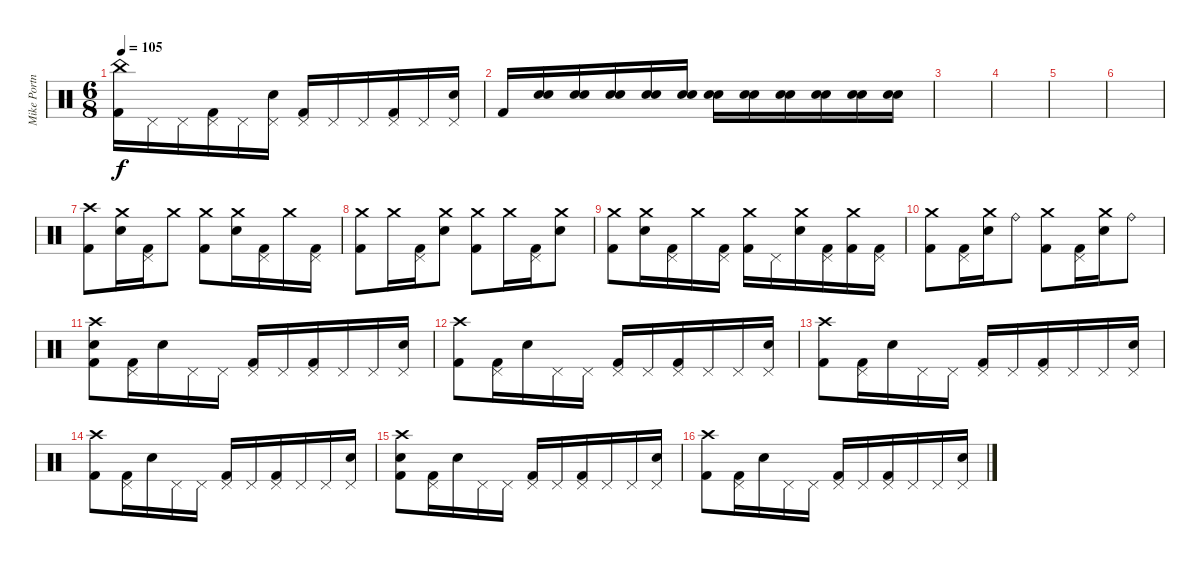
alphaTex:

\track ("Mike Portnoy" "Mike Portn") {instrument percussion}
\staff {score}
\articulation defaults
\ts (6 8)
\tempo 105
\clef neutral
\ks c
("China (hit)" "Kick (hit) 2").16{dy f} "Pedal Hi-Hat (hit)".16 "Pedal Hi-Hat (hit)".16 ("Pedal Hi-Hat (hit)" "Kick (hit) 2").16 "Pedal Hi-Hat (hit)".16 ("Pedal Hi-Hat (hit)" "Electric Snare (hit)").16 ("Pedal Hi-Hat (hit)" "Kick (hit) 2").16 "Pedal Hi-Hat (hit)".16 "Pedal Hi-Hat (hit)".16 ("Pedal Hi-Hat (hit)" "Kick (hit) 2").16 "Pedal Hi-Hat (hit)".16 ("Pedal Hi-Hat (hit)" "Electric Snare (hit)").16 |
"Kick (hit) 2".16 ("Electric Snare (hit)" "Electric Snare (hit)").16 ("Electric Snare (hit)" "Electric Snare (hit)").16 ("Electric Snare (hit)" "Electric Snare (hit)").16 ("Electric Snare (hit)" "Electric Snare (hit)").16 ("Electric Snare (hit)" "Electric Snare (hit)").16 ("Electric Snare (hit)" "Electric Snare (hit)").16 ("Electric Snare (hit)" "Electric Snare (hit)").16 ("Electric Snare (hit)" "Electric Snare (hit)").16 ("Electric Snare (hit)" "Electric Snare (hit)").16 ("Electric Snare (hit)" "Electric Snare (hit)").16 ("Electric Snare (hit)" "Electric Snare (hit)").16 |
|
|
|
|
("Crash high (hit)" "Kick (hit) 2").8 ("Crash medium (hit)" "Electric Snare (hit)").16 ("Pedal Hi-Hat (hit)" "Kick (hit) 2").16 "Crash medium (hit)".8 ("Crash medium (hit)" "Kick (hit) 2").8 ("Crash medium (hit)" "Electric Snare (hit)").16 ("Pedal Hi-Hat (hit)" "Kick (hit) 2").16 "Crash medium (hit)".16 ("Pedal Hi-Hat (hit)" "Kick (hit) 2").16 |
("Crash medium (hit)" "Kick (hit) 2").8 "Crash medium (hit)".16 ("Pedal Hi-Hat (hit)" "Kick (hit) 2").16 ("Crash medium (hit)" "Electric Snare (hit)").8 ("Crash medium (hit)" "Kick (hit) 2").8 "Crash medium (hit)".16 ("Pedal Hi-Hat (hit)" "Kick (hit) 2").16 ("Crash medium (hit)" "Electric Snare (hit)").8 |
("Crash medium (hit)" "Kick (hit) 2").8 ("Crash medium (hit)" "Electric Snare (hit)").16 ("Pedal Hi-Hat (hit)" "Kick (hit) 2").16 "Crash medium (hit)".16 ("Pedal Hi-Hat (hit)" "Kick (hit) 2").16 ("Crash medium (hit)" "Kick (hit) 2").16 "Pedal Hi-Hat (hit)".16 ("Crash medium (hit)" "Electric Snare (hit)").16 ("Pedal Hi-Hat (hit)" "Kick (hit) 2").16 ("Crash medium (hit)" "Kick (hit) 2").16 ("Pedal Hi-Hat (hit)" "Kick (hit) 2").16 |
("Crash medium (hit)" "Kick (hit) 2").8 ("Pedal Hi-Hat (hit)" "Kick (hit) 2").16 ("Crash medium (hit)" "Electric Snare (hit)").16 "Ride (bell)".8 ("Crash medium (hit)" "Kick (hit) 2").8 ("Pedal Hi-Hat (hit)" "Kick (hit) 2").16 ("Crash medium (hit)" "Electric Snare (hit)").16 "Ride (bell)".8 |
("Crash high (hit)" "Electric Snare (hit)" "Kick (hit) 2").8 ("Pedal Hi-Hat (hit)" "Kick (hit) 2").16 "Electric Snare (hit)".16 "Pedal Hi-Hat (hit)".16 "Pedal Hi-Hat (hit)".16 ("Pedal Hi-Hat (hit)" "Kick (hit) 2").16 "Pedal Hi-Hat (hit)".16 ("Pedal Hi-Hat (hit)" "Kick (hit) 2").16 "Pedal Hi-Hat (hit)".16 "Pedal Hi-Hat (hit)".16 ("Pedal Hi-Hat (hit)" "Electric Snare (hit)").16 |
("Crash high (hit)" "Kick (hit) 2").8 ("Pedal Hi-Hat (hit)" "Kick (hit) 2").16 "Electric Snare (hit)".16 "Pedal Hi-Hat (hit)".16 "Pedal Hi-Hat (hit)".16 ("Pedal Hi-Hat (hit)" "Kick (hit) 2").16 "Pedal Hi-Hat (hit)".16 ("Pedal Hi-Hat (hit)" "Kick (hit) 2").16 "Pedal Hi-Hat (hit)".16 "Pedal Hi-Hat (hit)".16 ("Pedal Hi-Hat (hit)" "Electric Snare (hit)").16 |
("Crash high (hit)" "Kick (hit) 2").8 ("Pedal Hi-Hat (hit)" "Kick (hit) 2").16 "Electric Snare (hit)".16 "Pedal Hi-Hat (hit)".16 "Pedal Hi-Hat (hit)".16 ("Pedal Hi-Hat (hit)" "Kick (hit) 2").16 "Pedal Hi-Hat (hit)".16 ("Pedal Hi-Hat (hit)" "Kick (hit) 2").16 "Pedal Hi-Hat (hit)".16 "Pedal Hi-Hat (hit)".16 ("Pedal Hi-Hat (hit)" "Electric Snare (hit)").16 |
("Crash high (hit)" "Kick (hit) 2").8 ("Pedal Hi-Hat (hit)" "Kick (hit) 2").16 "Electric Snare (hit)".16 "Pedal Hi-Hat (hit)".16 "Pedal Hi-Hat (hit)".16 ("Pedal Hi-Hat (hit)" "Kick (hit) 2").16 "Pedal Hi-Hat (hit)".16 ("Pedal Hi-Hat (hit)" "Kick (hit) 2").16 "Pedal Hi-Hat (hit)".16 "Pedal Hi-Hat (hit)".16 ("Pedal Hi-Hat (hit)" "Electric Snare (hit)").16 |
("Crash high (hit)" "Electric Snare (hit)" "Kick (hit) 2").8 ("Pedal Hi-Hat (hit)" "Kick (hit) 2").16 "Electric Snare (hit)".16 "Pedal Hi-Hat (hit)".16 "Pedal Hi-Hat (hit)".16 ("Pedal Hi-Hat (hit)" "Kick (hit) 2").16 "Pedal Hi-Hat (hit)".16 ("Pedal Hi-Hat (hit)" "Kick (hit) 2").16 "Pedal Hi-Hat (hit)".16 "Pedal Hi-Hat (hit)".16 ("Pedal Hi-Hat (hit)" "Electric Snare (hit)").16 |
("Crash high (hit)" "Kick (hit) 2").8 ("Pedal Hi-Hat (hit)" "Kick (hit) 2").16 "Electric Snare (hit)".16 "Pedal Hi-Hat (hit)".16 "Pedal Hi-Hat (hit)".16 ("Pedal Hi-Hat (hit)" "Kick (hit) 2").16 "Pedal Hi-Hat (hit)".16 ("Pedal Hi-Hat (hit)" "Kick (hit) 2").16 "Pedal Hi-Hat (hit)".16 "Pedal Hi-Hat (hit)".16 ("Pedal Hi-Hat (hit)" "Electric Snare (hit)").16
